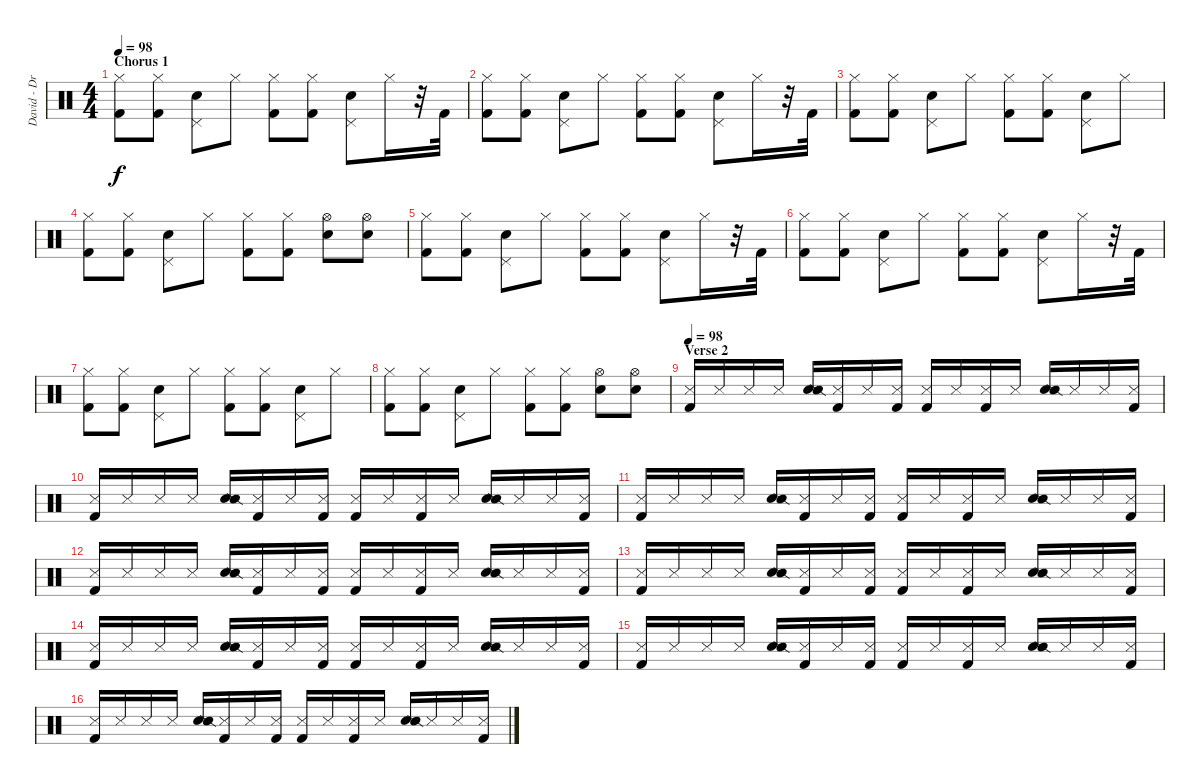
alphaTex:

\track ("David - Drums" "David - Dr") {instrument percussion}
\staff {score}
\articulation defaults
\ts (4 4)
\section ("" "Chorus 1")
\tempo 98
\clef neutral
\ks c
("Hi-Hat (closed)" "Kick (hit) 2").8{dy f volume 12} ("Hi-Hat (closed)" "Kick (hit) 2").8 ("Pedal Hi-Hat (hit)" "Snare (hit) 2").8 "Hi-Hat (closed)".8 ("Hi-Hat (closed)" "Kick (hit) 2").8 ("Hi-Hat (closed)" "Kick (hit) 2").8 ("Pedal Hi-Hat (hit)" "Snare (hit) 2").8 "Hi-Hat (closed)".16 r.32 "Kick (hit) 2".32 |
("Hi-Hat (closed)" "Kick (hit) 2").8 ("Hi-Hat (closed)" "Kick (hit) 2").8 ("Pedal Hi-Hat (hit)" "Snare (hit) 2").8 "Hi-Hat (closed)".8 ("Hi-Hat (closed)" "Kick (hit) 2").8 ("Hi-Hat (closed)" "Kick (hit) 2").8 ("Pedal Hi-Hat (hit)" "Snare (hit) 2").8 "Hi-Hat (closed)".16 r.32 "Kick (hit) 2".32 |
("Hi-Hat (closed)" "Kick (hit) 2").8 ("Hi-Hat (closed)" "Kick (hit) 2").8 ("Pedal Hi-Hat (hit)" "Snare (hit) 2").8 "Hi-Hat (closed)".8 ("Hi-Hat (closed)" "Kick (hit) 2").8 ("Hi-Hat (closed)" "Kick (hit) 2").8 ("Pedal Hi-Hat (hit)" "Snare (hit) 2").8 "Hi-Hat (closed)".8 |
("Hi-Hat (closed)" "Kick (hit) 2").8 ("Hi-Hat (closed)" "Kick (hit) 2").8 ("Pedal Hi-Hat (hit)" "Snare (hit) 2").8 "Hi-Hat (closed)".8 ("Hi-Hat (closed)" "Kick (hit) 2").8 ("Hi-Hat (closed)" "Kick (hit) 2").8 ("Hi-Hat (open)" "Snare (hit) 2").8 ("Hi-Hat (open)" "Snare (hit) 2").8 |
("Hi-Hat (closed)" "Kick (hit) 2").8 ("Hi-Hat (closed)" "Kick (hit) 2").8 ("Pedal Hi-Hat (hit)" "Snare (hit) 2").8 "Hi-Hat (closed)".8 ("Hi-Hat (closed)" "Kick (hit) 2").8 ("Hi-Hat (closed)" "Kick (hit) 2").8 ("Pedal Hi-Hat (hit)" "Snare (hit) 2").8 "Hi-Hat (closed)".16 r.32 "Kick (hit) 2".32 |
("Hi-Hat (closed)" "Kick (hit) 2").8 ("Hi-Hat (closed)" "Kick (hit) 2").8 ("Pedal Hi-Hat (hit)" "Snare (hit) 2").8 "Hi-Hat (closed)".8 ("Hi-Hat (closed)" "Kick (hit) 2").8 ("Hi-Hat (closed)" "Kick (hit) 2").8 ("Pedal Hi-Hat (hit)" "Snare (hit) 2").8 "Hi-Hat (closed)".16 r.32 "Kick (hit) 2".32 |
("Hi-Hat (closed)" "Kick (hit) 2").8 ("Hi-Hat (closed)" "Kick (hit) 2").8 ("Pedal Hi-Hat (hit)" "Snare (hit) 2").8 "Hi-Hat (closed)".8 ("Hi-Hat (closed)" "Kick (hit) 2").8 ("Hi-Hat (closed)" "Kick (hit) 2").8 ("Pedal Hi-Hat (hit)" "Snare (hit) 2").8 "Hi-Hat (closed)".8 |
("Hi-Hat (closed)" "Kick (hit) 2").8 ("Hi-Hat (closed)" "Kick (hit) 2").8 ("Pedal Hi-Hat (hit)" "Snare (hit) 2").8 "Hi-Hat (closed)".8 ("Hi-Hat (closed)" "Kick (hit) 2").8 ("Hi-Hat (closed)" "Kick (hit) 2").8 ("Hi-Hat (open)" "Snare (hit) 2").8 ("Hi-Hat (open)" "Snare (hit) 2").8 |
\section ("" "Verse 2")
\tempo 98
("Kick (hit) 2" "Metronome (hit)").16{volume 16} "Metronome (hit)".16 "Metronome (hit)".16 "Metronome (hit)".16 ("Hand Clap (hit)" "Snare (side stick) 2").16 ("Kick (hit) 2" "Metronome (hit)").16 "Metronome (hit)".16 ("Kick (hit) 2" "Metronome (hit)").16 ("Kick (hit) 2" "Metronome (hit)").16 "Metronome (hit)".16 ("Kick (hit) 2" "Metronome (hit)").16 "Metronome (hit)".16 ("Hand Clap (hit)" "Snare (side stick) 2").16 "Metronome (hit)".16 "Metronome (hit)".16 ("Kick (hit) 2" "Metronome (hit)").16 |
("Kick (hit) 2" "Metronome (hit)").16 "Metronome (hit)".16 "Metronome (hit)".16 "Metronome (hit)".16 ("Hand Clap (hit)" "Snare (side stick) 2").16 ("Kick (hit) 2" "Metronome (hit)").16 "Metronome (hit)".16 ("Kick (hit) 2" "Metronome (hit)").16 ("Kick (hit) 2" "Metronome (hit)").16 "Metronome (hit)".16 ("Kick (hit) 2" "Metronome (hit)").16 "Metronome (hit)".16 ("Hand Clap (hit)" "Snare (side stick) 2").16 "Metronome (hit)".16 "Metronome (hit)".16 ("Kick (hit) 2" "Metronome (hit)").16 |
("Kick (hit) 2" "Metronome (hit)").16 "Metronome (hit)".16 "Metronome (hit)".16 "Metronome (hit)".16 ("Hand Clap (hit)" "Snare (side stick) 2").16 ("Kick (hit) 2" "Metronome (hit)").16 "Metronome (hit)".16 ("Kick (hit) 2" "Metronome (hit)").16 ("Kick (hit) 2" "Metronome (hit)").16 "Metronome (hit)".16 ("Kick (hit) 2" "Metronome (hit)").16 "Metronome (hit)".16 ("Hand Clap (hit)" "Snare (side stick) 2").16 "Metronome (hit)".16 "Metronome (hit)".16 ("Kick (hit) 2" "Metronome (hit)").16 |
("Kick (hit) 2" "Metronome (hit)").16 "Metronome (hit)".16 "Metronome (hit)".16 "Metronome (hit)".16 ("Hand Clap (hit)" "Snare (side stick) 2").16 ("Kick (hit) 2" "Metronome (hit)").16 "Metronome (hit)".16 ("Kick (hit) 2" "Metronome (hit)").16 ("Kick (hit) 2" "Metronome (hit)").16 "Metronome (hit)".16 ("Kick (hit) 2" "Metronome (hit)").16 "Metronome (hit)".16 ("Hand Clap (hit)" "Snare (side stick) 2").16 "Metronome (hit)".16 "Metronome (hit)".16 ("Kick (hit) 2" "Metronome (hit)").16 |
("Kick (hit) 2" "Metronome (hit)").16 "Metronome (hit)".16 "Metronome (hit)".16 "Metronome (hit)".16 ("Hand Clap (hit)" "Snare (side stick) 2").16 ("Kick (hit) 2" "Metronome (hit)").16 "Metronome (hit)".16 ("Kick (hit) 2" "Metronome (hit)").16 ("Kick (hit) 2" "Metronome (hit)").16 "Metronome (hit)".16 ("Kick (hit) 2" "Metronome (hit)").16 "Metronome (hit)".16 ("Hand Clap (hit)" "Snare (side stick) 2").16 "Metronome (hit)".16 "Metronome (hit)".16 ("Kick (hit) 2" "Metronome (hit)").16 |
("Kick (hit) 2" "Metronome (hit)").16 "Metronome (hit)".16 "Metronome (hit)".16 "Metronome (hit)".16 ("Hand Clap (hit)" "Snare (side stick) 2").16 ("Kick (hit) 2" "Metronome (hit)").16 "Metronome (hit)".16 ("Kick (hit) 2" "Metronome (hit)").16 ("Kick (hit) 2" "Metronome (hit)").16 "Metronome (hit)".16 ("Kick (hit) 2" "Metronome (hit)").16 "Metronome (hit)".16 ("Hand Clap (hit)" "Snare (side stick) 2").16 "Metronome (hit)".16 "Metronome (hit)".16 ("Kick (hit) 2" "Metronome (hit)").16 |
("Kick (hit) 2" "Metronome (hit)").16 "Metronome (hit)".16 "Metronome (hit)".16 "Metronome (hit)".16 ("Hand Clap (hit)" "Snare (side stick) 2").16 ("Kick (hit) 2" "Metronome (hit)").16 "Metronome (hit)".16 ("Kick (hit) 2" "Metronome (hit)").16 ("Kick (hit) 2" "Metronome (hit)").16 "Metronome (hit)".16 ("Kick (hit) 2" "Metronome (hit)").16 "Metronome (hit)".16 ("Hand Clap (hit)" "Snare (side stick) 2").16 "Metronome (hit)".16 "Metronome (hit)".16 ("Kick (hit) 2" "Metronome (hit)").16 |
("Kick (hit) 2" "Metronome (hit)").16 "Metronome (hit)".16 "Metronome (hit)".16 "Metronome (hit)".16 ("Hand Clap (hit)" "Snare (side stick) 2").16 ("Kick (hit) 2" "Metronome (hit)").16 "Metronome (hit)".16 ("Kick (hit) 2" "Metronome (hit)").16 ("Kick (hit) 2" "Metronome (hit)").16 "Metronome (hit)".16 ("Kick (hit) 2" "Metronome (hit)").16 "Metronome (hit)".16 ("Hand Clap (hit)" "Snare (side stick) 2").16 "Metronome (hit)".16 "Metronome (hit)".16 ("Kick (hit) 2" "Metronome (hit)").16
